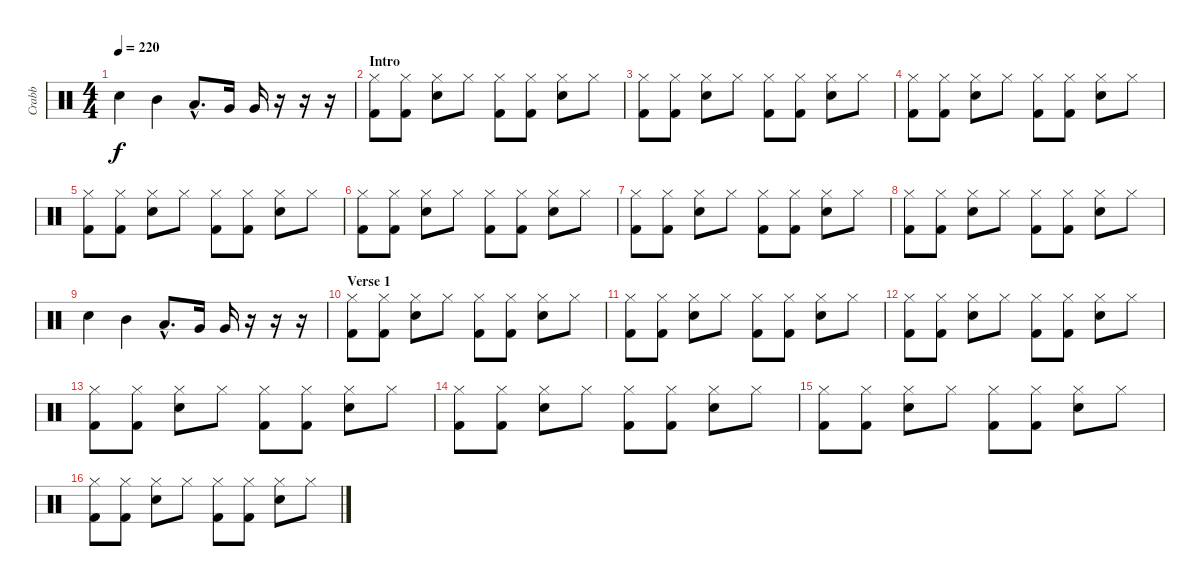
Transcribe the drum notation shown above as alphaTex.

\track ("Crabb" "Crabb") {instrument percussion}
\staff {score}
\articulation defaults
\ts (4 4)
\tempo 220
\clef neutral
\ks c "Electric Snare (hit)".4{dy f} "Mid Tom (hit)".4 "Low Tom (hit)"{hac}.8{d} "Very Low Tom (hit)".16 "Very Low Tom (hit)".16
r.16 r.16 r.16 |
\section ("" "Intro ")
("Hi-Hat (closed)" "Kick (hit) 2").8 ("Hi-Hat (closed)" "Kick (hit) 2").8 ("Hi-Hat (closed)" "Electric Snare (hit)").8 "Hi-Hat (closed)".8 ("Hi-Hat (closed)" "Kick (hit) 2").8 ("Hi-Hat (closed)" "Kick (hit) 2").8 ("Hi-Hat (closed)" "Electric Snare (hit)").8 "Hi-Hat (closed)".8 |
("Hi-Hat (closed)" "Kick (hit) 2").8 ("Hi-Hat (closed)" "Kick (hit) 2").8 ("Hi-Hat (closed)" "Electric Snare (hit)").8 "Hi-Hat (closed)".8 ("Hi-Hat (closed)" "Kick (hit) 2").8 ("Hi-Hat (closed)" "Kick (hit) 2").8 ("Hi-Hat (closed)" "Electric Snare (hit)").8 "Hi-Hat (closed)".8 |
("Hi-Hat (closed)" "Kick (hit) 2").8 ("Hi-Hat (closed)" "Kick (hit) 2").8 ("Hi-Hat (closed)" "Electric Snare (hit)").8 "Hi-Hat (closed)".8 ("Hi-Hat (closed)" "Kick (hit) 2").8 ("Hi-Hat (closed)" "Kick (hit) 2").8 ("Hi-Hat (closed)" "Electric Snare (hit)").8 "Hi-Hat (closed)".8 |
("Hi-Hat (closed)" "Kick (hit) 2").8 ("Hi-Hat (closed)" "Kick (hit) 2").8 ("Hi-Hat (closed)" "Electric Snare (hit)").8 "Hi-Hat (closed)".8 ("Hi-Hat (closed)" "Kick (hit) 2").8 ("Hi-Hat (closed)" "Kick (hit) 2").8 ("Hi-Hat (closed)" "Electric Snare (hit)").8 "Hi-Hat (closed)".8 |
("Hi-Hat (closed)" "Kick (hit) 2").8 ("Hi-Hat (closed)" "Kick (hit) 2").8 ("Hi-Hat (closed)" "Electric Snare (hit)").8 "Hi-Hat (closed)".8 ("Hi-Hat (closed)" "Kick (hit) 2").8 ("Hi-Hat (closed)" "Kick (hit) 2").8 ("Hi-Hat (closed)" "Electric Snare (hit)").8 "Hi-Hat (closed)".8 |
("Hi-Hat (closed)" "Kick (hit) 2").8 ("Hi-Hat (closed)" "Kick (hit) 2").8 ("Hi-Hat (closed)" "Electric Snare (hit)").8 "Hi-Hat (closed)".8 ("Hi-Hat (closed)" "Kick (hit) 2").8 ("Hi-Hat (closed)" "Kick (hit) 2").8 ("Hi-Hat (closed)" "Electric Snare (hit)").8 "Hi-Hat (closed)".8 |
("Hi-Hat (closed)" "Kick (hit) 2").8 ("Hi-Hat (closed)" "Kick (hit) 2").8 ("Hi-Hat (closed)" "Electric Snare (hit)").8 "Hi-Hat (closed)".8 ("Hi-Hat (closed)" "Kick (hit) 2").8 ("Hi-Hat (closed)" "Kick (hit) 2").8 ("Hi-Hat (closed)" "Electric Snare (hit)").8 "Hi-Hat (closed)".8 |
"Electric Snare (hit)".4 "Mid Tom (hit)".4 "Low Tom (hit)"{hac}.8{d} "Very Low Tom (hit)".16 "Very Low Tom (hit)".16 r.16 r.16 r.16 |
\section ("" "Verse 1")
("Hi-Hat (closed)" "Kick (hit) 2").8 ("Hi-Hat (closed)" "Kick (hit) 2").8 ("Hi-Hat (closed)" "Electric Snare (hit)").8 "Hi-Hat (closed)".8 ("Hi-Hat (closed)" "Kick (hit) 2").8 ("Hi-Hat (closed)" "Kick (hit) 2").8 ("Hi-Hat (closed)" "Electric Snare (hit)").8 "Hi-Hat (closed)".8 |
("Hi-Hat (closed)" "Kick (hit) 2").8 ("Hi-Hat (closed)" "Kick (hit) 2").8 ("Hi-Hat (closed)" "Electric Snare (hit)").8 "Hi-Hat (closed)".8 ("Hi-Hat (closed)" "Kick (hit) 2").8 ("Hi-Hat (closed)" "Kick (hit) 2").8 ("Hi-Hat (closed)" "Electric Snare (hit)").8 "Hi-Hat (closed)".8 |
("Hi-Hat (closed)" "Kick (hit) 2").8 ("Hi-Hat (closed)" "Kick (hit) 2").8 ("Hi-Hat (closed)" "Electric Snare (hit)").8 "Hi-Hat (closed)".8 ("Hi-Hat (closed)" "Kick (hit) 2").8 ("Hi-Hat (closed)" "Kick (hit) 2").8 ("Hi-Hat (closed)" "Electric Snare (hit)").8 "Hi-Hat (closed)".8 |
("Hi-Hat (closed)" "Kick (hit) 2").8 ("Hi-Hat (closed)" "Kick (hit) 2").8 ("Hi-Hat (closed)" "Electric Snare (hit)").8 "Hi-Hat (closed)".8 ("Hi-Hat (closed)" "Kick (hit) 2").8 ("Hi-Hat (closed)" "Kick (hit) 2").8 ("Hi-Hat (closed)" "Electric Snare (hit)").8 "Hi-Hat (closed)".8 |
("Hi-Hat (closed)" "Kick (hit) 2").8 ("Hi-Hat (closed)" "Kick (hit) 2").8 ("Hi-Hat (closed)" "Electric Snare (hit)").8 "Hi-Hat (closed)".8 ("Hi-Hat (closed)" "Kick (hit) 2").8 ("Hi-Hat (closed)" "Kick (hit) 2").8 ("Hi-Hat (closed)" "Electric Snare (hit)").8 "Hi-Hat (closed)".8 |
("Hi-Hat (closed)" "Kick (hit) 2").8 ("Hi-Hat (closed)" "Kick (hit) 2").8 ("Hi-Hat (closed)" "Electric Snare (hit)").8 "Hi-Hat (closed)".8 ("Hi-Hat (closed)" "Kick (hit) 2").8 ("Hi-Hat (closed)" "Kick (hit) 2").8 ("Hi-Hat (closed)" "Electric Snare (hit)").8 "Hi-Hat (closed)".8 |
("Hi-Hat (closed)" "Kick (hit) 2").8 ("Hi-Hat (closed)" "Kick (hit) 2").8 ("Hi-Hat (closed)" "Electric Snare (hit)").8 "Hi-Hat (closed)".8 ("Hi-Hat (closed)" "Kick (hit) 2").8 ("Hi-Hat (closed)" "Kick (hit) 2").8 ("Hi-Hat (closed)" "Electric Snare (hit)").8 "Hi-Hat (closed)".8
